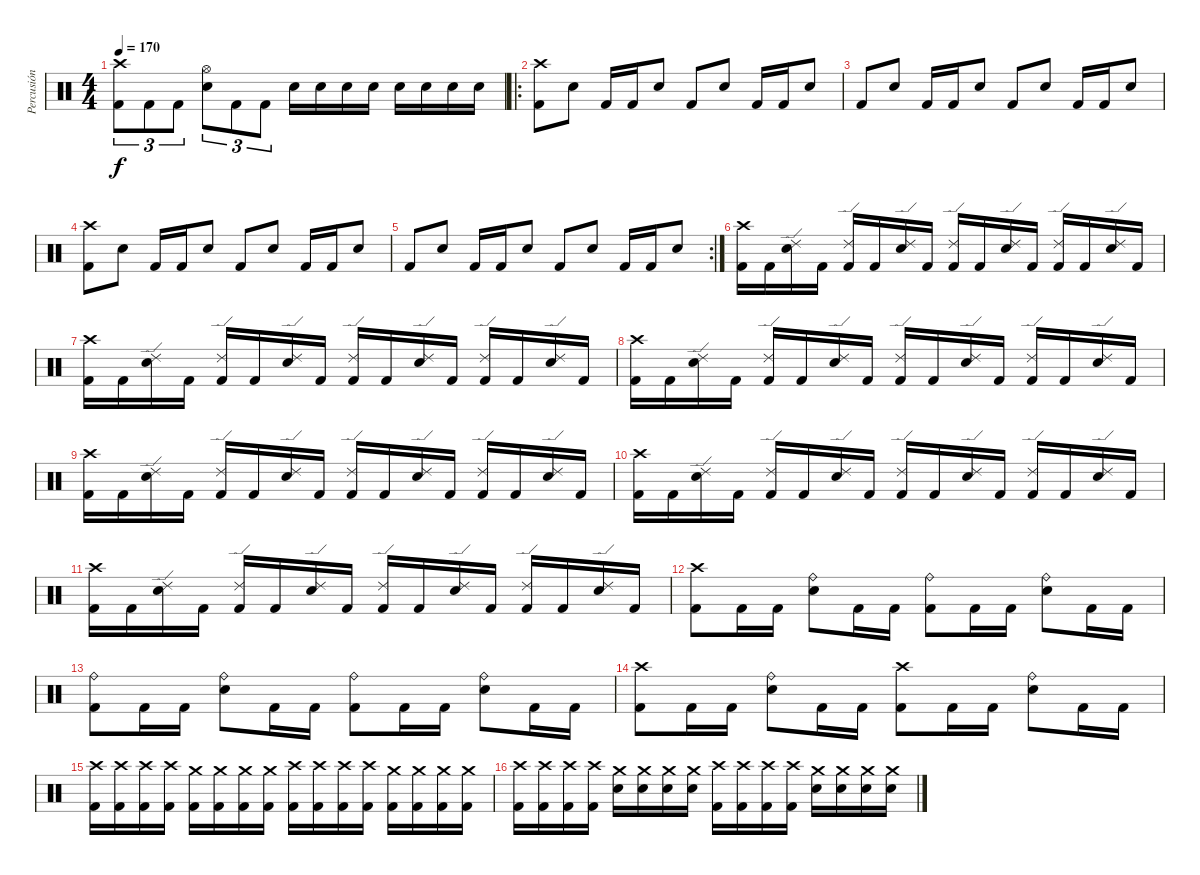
\track ("Percusión" "Percusión") {instrument percussion}
\staff {score}
\articulation defaults
\ts (4 4)
\tempo 170
\clef neutral
\ks c
("Crash high (hit)" "Kick (hit) 2").8{tu (3 2) dy f} "Kick (hit) 2".8{tu (3 2)} "Kick (hit) 2".8{tu (3 2)} ("Hi-Hat (open)" "Electric Snare (hit)").8{tu (3 2)} "Kick (hit) 2".8{tu (3 2)} "Kick (hit) 2".8{tu (3 2)} "Electric Snare (hit)".16 "Electric Snare (hit)".16 "Electric Snare (hit)".16 "Electric Snare (hit)".16 "Electric Snare (hit)".16 "Electric Snare (hit)".16 "Electric Snare (hit)".16 "Electric Snare (hit)".16 |
\ro
("Crash high (hit)" "Kick (hit) 2").8 "Electric Snare (hit)".8 "Kick (hit) 2".16 "Kick (hit) 2".16 "Electric Snare (hit)".8 "Kick (hit) 2".8 "Electric Snare (hit)".8 "Kick (hit) 2".16 "Kick (hit) 2".16 "Electric Snare (hit)".8 |
"Kick (hit) 2".8 "Electric Snare (hit)".8 "Kick (hit) 2".16 "Kick (hit) 2".16 "Electric Snare (hit)".8 "Kick (hit) 2".8 "Electric Snare (hit)".8 "Kick (hit) 2".16 "Kick (hit) 2".16 "Electric Snare (hit)".8 |
("Crash high (hit)" "Kick (hit) 2").8 "Electric Snare (hit)".8 "Kick (hit) 2".16 "Kick (hit) 2".16 "Electric Snare (hit)".8 "Kick (hit) 2".8 "Electric Snare (hit)".8 "Kick (hit) 2".16 "Kick (hit) 2".16 "Electric Snare (hit)".8 |
\rc 2 "Kick (hit) 2".8 "Electric Snare (hit)".8 "Kick (hit) 2".16 "Kick (hit) 2".16 "Electric Snare (hit)".8 "Kick (hit) 2".8 "Electric Snare (hit)".8 "Kick (hit) 2".16 "Kick (hit) 2".16 "Electric Snare (hit)".8
|
("Crash high (hit)" "Kick (hit) 2").16 "Kick (hit) 2".16 ("Ride (edge) 2" "Electric Snare (hit)").16 "Kick (hit) 2".16 ("Ride (edge) 2" "Kick (hit) 2").16 "Kick (hit) 2".16 ("Ride (edge) 2" "Electric Snare (hit)").16 "Kick (hit) 2".16 ("Ride (edge) 2" "Kick (hit) 2").16 "Kick (hit) 2".16 ("Ride (edge) 2" "Electric Snare (hit)").16 "Kick (hit) 2".16 ("Ride (edge) 2" "Kick (hit) 2").16 "Kick (hit) 2".16 ("Ride (edge) 2" "Electric Snare (hit)").16 "Kick (hit) 2".16 |
("Crash high (hit)" "Kick (hit) 2").16 "Kick (hit) 2".16 ("Ride (edge) 2" "Electric Snare (hit)").16 "Kick (hit) 2".16 ("Ride (edge) 2" "Kick (hit) 2").16 "Kick (hit) 2".16 ("Ride (edge) 2" "Electric Snare (hit)").16 "Kick (hit) 2".16 ("Ride (edge) 2" "Kick (hit) 2").16 "Kick (hit) 2".16 ("Ride (edge) 2" "Electric Snare (hit)").16 "Kick (hit) 2".16 ("Ride (edge) 2" "Kick (hit) 2").16 "Kick (hit) 2".16 ("Ride (edge) 2" "Electric Snare (hit)").16 "Kick (hit) 2".16 |
("Crash high (hit)" "Kick (hit) 2").16 "Kick (hit) 2".16 ("Ride (edge) 2" "Electric Snare (hit)").16 "Kick (hit) 2".16 ("Ride (edge) 2" "Kick (hit) 2").16 "Kick (hit) 2".16 ("Ride (edge) 2" "Electric Snare (hit)").16 "Kick (hit) 2".16 ("Ride (edge) 2" "Kick (hit) 2").16 "Kick (hit) 2".16 ("Ride (edge) 2" "Electric Snare (hit)").16 "Kick (hit) 2".16 ("Ride (edge) 2" "Kick (hit) 2").16 "Kick (hit) 2".16 ("Ride (edge) 2" "Electric Snare (hit)").16 "Kick (hit) 2".16 |
("Crash high (hit)" "Kick (hit) 2").16 "Kick (hit) 2".16 ("Ride (edge) 2" "Electric Snare (hit)").16 "Kick (hit) 2".16 ("Ride (edge) 2" "Kick (hit) 2").16 "Kick (hit) 2".16 ("Ride (edge) 2" "Electric Snare (hit)").16 "Kick (hit) 2".16 ("Ride (edge) 2" "Kick (hit) 2").16 "Kick (hit) 2".16 ("Ride (edge) 2" "Electric Snare (hit)").16 "Kick (hit) 2".16 ("Ride (edge) 2" "Kick (hit) 2").16 "Kick (hit) 2".16 ("Ride (edge) 2" "Electric Snare (hit)").16 "Kick (hit) 2".16 |
("Crash high (hit)" "Kick (hit) 2").16 "Kick (hit) 2".16 ("Ride (edge) 2" "Electric Snare (hit)").16 "Kick (hit) 2".16 ("Ride (edge) 2" "Kick (hit) 2").16 "Kick (hit) 2".16 ("Ride (edge) 2" "Electric Snare (hit)").16 "Kick (hit) 2".16 ("Ride (edge) 2" "Kick (hit) 2").16 "Kick (hit) 2".16 ("Ride (edge) 2" "Electric Snare (hit)").16 "Kick (hit) 2".16 ("Ride (edge) 2" "Kick (hit) 2").16 "Kick (hit) 2".16 ("Ride (edge) 2" "Electric Snare (hit)").16 "Kick (hit) 2".16 |
("Crash high (hit)" "Kick (hit) 2").16 "Kick (hit) 2".16 ("Ride (edge) 2" "Electric Snare (hit)").16 "Kick (hit) 2".16 ("Ride (edge) 2" "Kick (hit) 2").16 "Kick (hit) 2".16 ("Ride (edge) 2" "Electric Snare (hit)").16 "Kick (hit) 2".16 ("Ride (edge) 2" "Kick (hit) 2").16 "Kick (hit) 2".16 ("Ride (edge) 2" "Electric Snare (hit)").16 "Kick (hit) 2".16 ("Ride (edge) 2" "Kick (hit) 2").16 "Kick (hit) 2".16 ("Ride (edge) 2" "Electric Snare (hit)").16 "Kick (hit) 2".16 |
("Crash high (hit)" "Kick (hit) 2").8 "Kick (hit) 2".16 "Kick (hit) 2".16 ("Ride (bell)" "Electric Snare (hit)").8 "Kick (hit) 2".16 "Kick (hit) 2".16 ("Ride (bell)" "Kick (hit) 2").8 "Kick (hit) 2".16 "Kick (hit) 2".16 ("Ride (bell)" "Electric Snare (hit)").8 "Kick (hit) 2".16 "Kick (hit) 2".16 |
("Ride (bell)" "Kick (hit) 2").8 "Kick (hit) 2".16 "Kick (hit) 2".16 ("Ride (bell)" "Electric Snare (hit)").8 "Kick (hit) 2".16 "Kick (hit) 2".16 ("Ride (bell)" "Kick (hit) 2").8 "Kick (hit) 2".16 "Kick (hit) 2".16 ("Ride (bell)" "Electric Snare (hit)").8 "Kick (hit) 2".16 "Kick (hit) 2".16 |
("Crash high (hit)" "Kick (hit) 2").8 "Kick (hit) 2".16 "Kick (hit) 2".16 ("Ride (bell)" "Electric Snare (hit)").8 "Kick (hit) 2".16 "Kick (hit) 2".16 ("Crash high (hit)" "Kick (hit) 2").8 "Kick (hit) 2".16 "Kick (hit) 2".16 ("Ride (bell)" "Electric Snare (hit)").8 "Kick (hit) 2".16 "Kick (hit) 2".16 |
("Crash high (hit)" "Kick (hit) 2").16 ("Crash high (hit)" "Kick (hit) 2").16 ("Crash high (hit)" "Kick (hit) 2").16 ("Crash high (hit)" "Kick (hit) 2").16 ("Crash medium (hit)" "Kick (hit) 2").16 ("Crash medium (hit)" "Kick (hit) 2").16 ("Crash medium (hit)" "Kick (hit) 2").16 ("Crash medium (hit)" "Kick (hit) 2").16 ("Crash high (hit)" "Kick (hit) 2").16 ("Crash high (hit)" "Kick (hit) 2").16 ("Crash high (hit)" "Kick (hit) 2").16 ("Crash high (hit)" "Kick (hit) 2").16 ("Crash medium (hit)" "Kick (hit) 2").16 ("Crash medium (hit)" "Kick (hit) 2").16 ("Crash medium (hit)" "Kick (hit) 2").16 ("Crash medium (hit)" "Kick (hit) 2").16 |
("Crash high (hit)" "Kick (hit) 2").16 ("Crash high (hit)" "Kick (hit) 2").16 ("Crash high (hit)" "Kick (hit) 2").16 ("Crash high (hit)" "Kick (hit) 2").16 ("Crash medium (hit)" "Electric Snare (hit)").16 ("Crash medium (hit)" "Electric Snare (hit)").16 ("Crash medium (hit)" "Electric Snare (hit)").16 ("Crash medium (hit)" "Electric Snare (hit)").16 ("Crash high (hit)" "Kick (hit) 2").16 ("Crash high (hit)" "Kick (hit) 2").16 ("Crash high (hit)" "Kick (hit) 2").16 ("Crash high (hit)" "Kick (hit) 2").16 ("Crash medium (hit)" "Electric Snare (hit)").16 ("Crash medium (hit)" "Electric Snare (hit)").16 ("Crash medium (hit)" "Electric Snare (hit)").16 ("Crash medium (hit)" "Electric Snare (hit)").16
